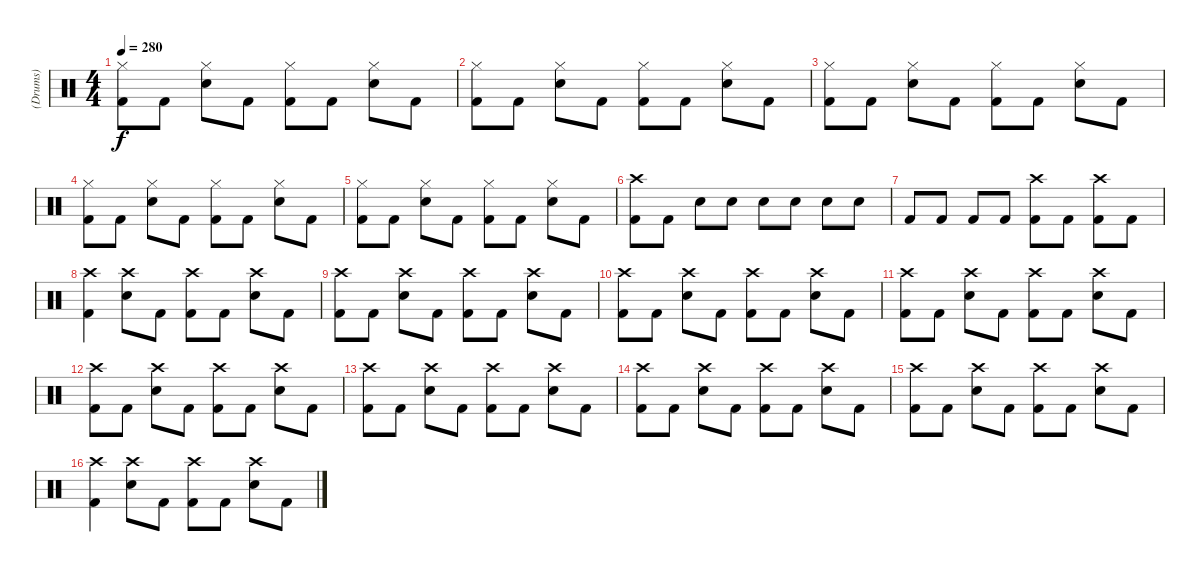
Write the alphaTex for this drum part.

\track ("(Drums)" "(Drums)") {instrument percussion}
\staff {score}
\articulation defaults
\ts (4 4)
\tempo 280
\clef neutral
\ks c
("Hi-Hat (closed)" "Kick (hit) 2").8{dy f} "Kick (hit) 2".8 ("Hi-Hat (closed)" "Snare (hit) 2").8 "Kick (hit) 2".8 ("Hi-Hat (closed)" "Kick (hit) 2").8 "Kick (hit) 2".8 ("Hi-Hat (closed)" "Snare (hit) 2").8 "Kick (hit) 2".8 |
("Hi-Hat (closed)" "Kick (hit) 2").8 "Kick (hit) 2".8 ("Hi-Hat (closed)" "Snare (hit) 2").8 "Kick (hit) 2".8 ("Hi-Hat (closed)" "Kick (hit) 2").8 "Kick (hit) 2".8 ("Hi-Hat (closed)" "Snare (hit) 2").8 "Kick (hit) 2".8 |
("Hi-Hat (closed)" "Kick (hit) 2").8 "Kick (hit) 2".8 ("Hi-Hat (closed)" "Snare (hit) 2").8 "Kick (hit) 2".8 ("Hi-Hat (closed)" "Kick (hit) 2").8 "Kick (hit) 2".8 ("Hi-Hat (closed)" "Snare (hit) 2").8 "Kick (hit) 2".8 |
("Hi-Hat (closed)" "Kick (hit) 2").8 "Kick (hit) 2".8 ("Hi-Hat (closed)" "Snare (hit) 2").8 "Kick (hit) 2".8 ("Hi-Hat (closed)" "Kick (hit) 2").8 "Kick (hit) 2".8 ("Hi-Hat (closed)" "Snare (hit) 2").8 "Kick (hit) 2".8 |
("Hi-Hat (closed)" "Kick (hit) 2").8 "Kick (hit) 2".8 ("Hi-Hat (closed)" "Snare (hit) 2").8 "Kick (hit) 2".8 ("Hi-Hat (closed)" "Kick (hit) 2").8 "Kick (hit) 2".8 ("Hi-Hat (closed)" "Snare (hit) 2").8 "Kick (hit) 2".8 |
("Kick (hit) 2" "Crash high (hit)").8 "Kick (hit) 2".8 "Snare (hit) 2".8 "Snare (hit) 2".8 "Snare (hit) 2".8 "Snare (hit) 2".8 "Snare (hit) 2".8 "Snare (hit) 2".8 |
"Kick (hit) 2".8 "Kick (hit) 2".8 "Kick (hit) 2".8 "Kick (hit) 2".8 ("Kick (hit) 2" "Crash high (hit)").8 "Kick (hit) 2".8 ("Kick (hit) 2" "Crash high (hit)").8 "Kick (hit) 2".8 |
("Crash high (hit)" "Kick (hit) 2").4 ("Crash high (hit)" "Snare (hit) 2").8 "Kick (hit) 2".8 ("Crash high (hit)" "Kick (hit) 2").8 "Kick (hit) 2".8 ("Crash high (hit)" "Snare (hit) 2").8 "Kick (hit) 2".8 |
("Crash high (hit)" "Kick (hit) 2").8 "Kick (hit) 2".8 ("Crash high (hit)" "Snare (hit) 2").8 "Kick (hit) 2".8 ("Crash high (hit)" "Kick (hit) 2").8 "Kick (hit) 2".8 ("Crash high (hit)" "Snare (hit) 2").8 "Kick (hit) 2".8 |
("Crash high (hit)" "Kick (hit) 2").8 "Kick (hit) 2".8 ("Crash high (hit)" "Snare (hit) 2").8 "Kick (hit) 2".8 ("Crash high (hit)" "Kick (hit) 2").8 "Kick (hit) 2".8 ("Crash high (hit)" "Snare (hit) 2").8 "Kick (hit) 2".8 |
("Crash high (hit)" "Kick (hit) 2").8 "Kick (hit) 2".8 ("Crash high (hit)" "Snare (hit) 2").8 "Kick (hit) 2".8 ("Crash high (hit)" "Kick (hit) 2").8 "Kick (hit) 2".8 ("Crash high (hit)" "Snare (hit) 2").8 "Kick (hit) 2".8 |
("Crash high (hit)" "Kick (hit) 2").8 "Kick (hit) 2".8 ("Crash high (hit)" "Snare (hit) 2").8 "Kick (hit) 2".8 ("Crash high (hit)" "Kick (hit) 2").8 "Kick (hit) 2".8 ("Crash high (hit)" "Snare (hit) 2").8 "Kick (hit) 2".8 |
("Crash high (hit)" "Kick (hit) 2").8 "Kick (hit) 2".8 ("Crash high (hit)" "Snare (hit) 2").8 "Kick (hit) 2".8 ("Crash high (hit)" "Kick (hit) 2").8 "Kick (hit) 2".8 ("Crash high (hit)" "Snare (hit) 2").8 "Kick (hit) 2".8 |
("Crash high (hit)" "Kick (hit) 2").8 "Kick (hit) 2".8 ("Crash high (hit)" "Snare (hit) 2").8 "Kick (hit) 2".8 ("Crash high (hit)" "Kick (hit) 2").8 "Kick (hit) 2".8 ("Crash high (hit)" "Snare (hit) 2").8 "Kick (hit) 2".8 |
("Crash high (hit)" "Kick (hit) 2").8 "Kick (hit) 2".8 ("Crash high (hit)" "Snare (hit) 2").8 "Kick (hit) 2".8 ("Crash high (hit)" "Kick (hit) 2").8 "Kick (hit) 2".8 ("Crash high (hit)" "Snare (hit) 2").8 "Kick (hit) 2".8 |
("Crash high (hit)" "Kick (hit) 2").4 ("Crash high (hit)" "Snare (hit) 2").8 "Kick (hit) 2".8 ("Crash high (hit)" "Kick (hit) 2").8 "Kick (hit) 2".8 ("Crash high (hit)" "Snare (hit) 2").8 "Kick (hit) 2".8
